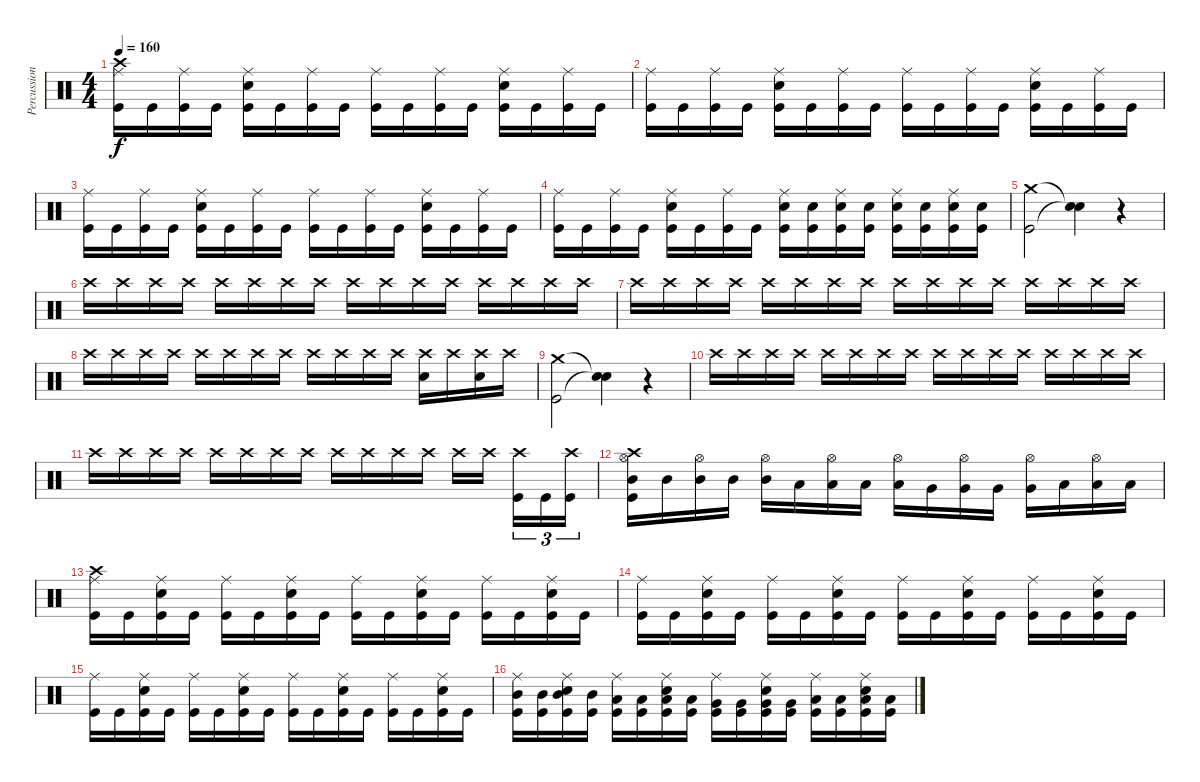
\track ("Percussion" "Percussion") {instrument percussion}
\staff {score}
\articulation defaults
\ts (4 4)
\tempo 160
\clef neutral
\ks c
("Crash high (hit)" "Ride (middle)" "Kick (hit)").16{dy f} "Kick (hit)".16 ("Ride (middle)" "Kick (hit)").16 "Kick (hit)".16 ("Electric Snare (hit)" "Ride (middle)" "Kick (hit)").16 "Kick (hit)".16 ("Ride (middle)" "Kick (hit)").16 "Kick (hit)".16 ("Ride (middle)" "Kick (hit)").16 "Kick (hit)".16 ("Ride (middle)" "Kick (hit)").16 "Kick (hit)".16 ("Electric Snare (hit)" "Ride (middle)" "Kick (hit)").16 "Kick (hit)".16 ("Ride (middle)" "Kick (hit)").16 "Kick (hit)".16 |
("Ride (middle)" "Kick (hit)").16 "Kick (hit)".16 ("Ride (middle)" "Kick (hit)").16 "Kick (hit)".16 ("Electric Snare (hit)" "Ride (middle)" "Kick (hit)").16 "Kick (hit)".16 ("Ride (middle)" "Kick (hit)").16 "Kick (hit)".16 ("Ride (middle)" "Kick (hit)").16 "Kick (hit)".16 ("Ride (middle)" "Kick (hit)").16 "Kick (hit)".16 ("Electric Snare (hit)" "Ride (middle)" "Kick (hit)").16 "Kick (hit)".16 ("Ride (middle)" "Kick (hit)").16 "Kick (hit)".16 |
("Ride (middle)" "Kick (hit)").16 "Kick (hit)".16 ("Ride (middle)" "Kick (hit)").16 "Kick (hit)".16 ("Electric Snare (hit)" "Ride (middle)" "Kick (hit)").16 "Kick (hit)".16 ("Ride (middle)" "Kick (hit)").16 "Kick (hit)".16 ("Ride (middle)" "Kick (hit)").16 "Kick (hit)".16 ("Ride (middle)" "Kick (hit)").16 "Kick (hit)".16 ("Electric Snare (hit)" "Ride (middle)" "Kick (hit)").16 "Kick (hit)".16 ("Ride (middle)" "Kick (hit)").16 "Kick (hit)".16 |
("Ride (middle)" "Kick (hit)").16 "Kick (hit)".16 ("Ride (middle)" "Kick (hit)").16 "Kick (hit)".16 ("Electric Snare (hit)" "Ride (middle)" "Kick (hit)").16 "Kick (hit)".16 ("Ride (middle)" "Kick (hit)").16 "Kick (hit)".16 ("Electric Snare (hit)" "Ride (middle)" "Kick (hit)").16 ("Electric Snare (hit)" "Kick (hit)").16 ("Electric Snare (hit)" "Ride (middle)" "Kick (hit)").16 ("Electric Snare (hit)" "Kick (hit)").16 ("Electric Snare (hit)" "Ride (middle)" "Kick (hit)").16 ("Electric Snare (hit)" "Kick (hit)").16 ("Electric Snare (hit)" "Ride (middle)" "Kick (hit)").16 ("Electric Snare (hit)" "Kick (hit)").16 |
("Crash medium (hit)" "Kick (hit)").2 ("Snare (hit)"{t} "Snare (hit)"{t}).4 r.4{volume 0} |
"Crash high (hit)".16{volume 16} "Crash high (hit)".16 "Crash high (hit)".16 "Crash high (hit)".16 "Crash high (hit)".16 "Crash high (hit)".16 "Crash high (hit)".16 "Crash high (hit)".16 "Crash high (hit)".16 "Crash high (hit)".16 "Crash high (hit)".16 "Crash high (hit)".16 "Crash high (hit)".16 "Crash high (hit)".16 "Crash high (hit)".16 "Crash high (hit)".16 |
"Crash high (hit)".16 "Crash high (hit)".16 "Crash high (hit)".16 "Crash high (hit)".16 "Crash high (hit)".16 "Crash high (hit)".16 "Crash high (hit)".16 "Crash high (hit)".16 "Crash high (hit)".16 "Crash high (hit)".16 "Crash high (hit)".16 "Crash high (hit)".16 "Crash high (hit)".16 "Crash high (hit)".16 "Crash high (hit)".16 "Crash high (hit)".16 |
"Crash high (hit)".16 "Crash high (hit)".16 "Crash high (hit)".16 "Crash high (hit)".16 "Crash high (hit)".16 "Crash high (hit)".16 "Crash high (hit)".16 "Crash high (hit)".16 "Crash high (hit)".16 "Crash high (hit)".16 "Crash high (hit)".16 "Crash high (hit)".16 ("Electric Snare (hit)" "Crash high (hit)").16 "Crash high (hit)".16 ("Electric Snare (hit)" "Crash high (hit)").16 "Crash high (hit)".16 |
("Crash medium (hit)" "Kick (hit)").2 ("Snare (hit)"{t} "Snare (hit)"{t}).4 r.4{volume 0} |
"Crash high (hit)".16{volume 16} "Crash high (hit)".16 "Crash high (hit)".16 "Crash high (hit)".16 "Crash high (hit)".16 "Crash high (hit)".16 "Crash high (hit)".16 "Crash high (hit)".16 "Crash high (hit)".16 "Crash high (hit)".16 "Crash high (hit)".16 "Crash high (hit)".16 "Crash high (hit)".16 "Crash high (hit)".16 "Crash high (hit)".16 "Crash high (hit)".16 |
"Crash high (hit)".16 "Crash high (hit)".16 "Crash high (hit)".16 "Crash high (hit)".16 "Crash high (hit)".16 "Crash high (hit)".16 "Crash high (hit)".16 "Crash high (hit)".16 "Crash high (hit)".16 "Crash high (hit)".16 "Crash high (hit)".16 "Crash high (hit)".16 "Crash high (hit)".16 "Crash high (hit)".16 ("Kick (hit)" "Crash high (hit)").16{tu (3 2)} "Kick (hit)".16{tu (3 2)} ("Kick (hit)" "Crash high (hit)").16{tu (3 2)} |
("Crash high (hit)" "Hi-Hat (open)" "Mid Tom (hit)" "Kick (hit)").16 "Mid Tom (hit)".16 ("Hi-Hat (open)" "Mid Tom (hit)").16 "Mid Tom (hit)".16 ("Hi-Hat (open)" "Mid Tom (hit)").16 "Low Tom (hit)".16 ("Hi-Hat (open)" "Low Tom (hit)").16 "Low Tom (hit)".16 ("Hi-Hat (open)" "Low Tom (hit)").16 "Very Low Tom (hit)".16 ("Hi-Hat (open)" "Very Low Tom (hit)").16 "Very Low Tom (hit)".16 ("Hi-Hat (open)" "Very Low Tom (hit)").16 "Low Floor Tom (hit)".16 ("Hi-Hat (open)" "Low Floor Tom (hit)").16 "Low Floor Tom (hit)".16 |
("Crash high (hit)" "Ride (middle)" "Kick (hit)").16 "Kick (hit)".16 ("Electric Snare (hit)" "Ride (middle)" "Kick (hit)").16 "Kick (hit)".16 ("Ride (middle)" "Kick (hit)").16 "Kick (hit)".16 ("Electric Snare (hit)" "Ride (middle)" "Kick (hit)").16 "Kick (hit)".16 ("Ride (middle)" "Kick (hit)").16 "Kick (hit)".16 ("Electric Snare (hit)" "Ride (middle)" "Kick (hit)").16 "Kick (hit)".16 ("Ride (middle)" "Kick (hit)").16 "Kick (hit)".16 ("Electric Snare (hit)" "Ride (middle)" "Kick (hit)").16 "Kick (hit)".16 |
("Ride (middle)" "Kick (hit)").16 "Kick (hit)".16 ("Electric Snare (hit)" "Ride (middle)" "Kick (hit)").16 "Kick (hit)".16 ("Ride (middle)" "Kick (hit)").16 "Kick (hit)".16 ("Electric Snare (hit)" "Ride (middle)" "Kick (hit)").16 "Kick (hit)".16 ("Ride (middle)" "Kick (hit)").16 "Kick (hit)".16 ("Electric Snare (hit)" "Ride (middle)" "Kick (hit)").16 "Kick (hit)".16 ("Ride (middle)" "Kick (hit)").16 "Kick (hit)".16 ("Electric Snare (hit)" "Ride (middle)" "Kick (hit)").16 "Kick (hit)".16 |
("Ride (middle)" "Kick (hit)").16 "Kick (hit)".16 ("Electric Snare (hit)" "Ride (middle)" "Kick (hit)").16 "Kick (hit)".16 ("Ride (middle)" "Kick (hit)").16 "Kick (hit)".16 ("Electric Snare (hit)" "Ride (middle)" "Kick (hit)").16 "Kick (hit)".16 ("Ride (middle)" "Kick (hit)").16 "Kick (hit)".16 ("Electric Snare (hit)" "Ride (middle)" "Kick (hit)").16 "Kick (hit)".16 ("Ride (middle)" "Kick (hit)").16 "Kick (hit)".16 ("Electric Snare (hit)" "Ride (middle)" "Kick (hit)").16 "Kick (hit)".16 |
("Ride (middle)" "Mid Tom (hit)" "Kick (hit)").16 ("Mid Tom (hit)" "Kick (hit)").16 ("Electric Snare (hit)" "Ride (middle)" "Mid Tom (hit)" "Kick (hit)").16 ("Mid Tom (hit)" "Kick (hit)").16 ("Ride (middle)" "Low Tom (hit)" "Kick (hit)").16 ("Low Tom (hit)" "Kick (hit)").16 ("Electric Snare (hit)" "Ride (middle)" "Low Tom (hit)" "Kick (hit)").16 ("Low Tom (hit)" "Kick (hit)").16 ("Ride (middle)" "Very Low Tom (hit)" "Kick (hit)").16 ("Very Low Tom (hit)" "Kick (hit)").16 ("Electric Snare (hit)" "Ride (middle)" "Very Low Tom (hit)" "Kick (hit)").16 ("Very Low Tom (hit)" "Kick (hit)").16 ("Ride (middle)" "Low Floor Tom (hit)" "Kick (hit)").16 ("Low Floor Tom (hit)" "Kick (hit)").16 ("Electric Snare (hit)" "Ride (middle)" "Low Floor Tom (hit)" "Kick (hit)").16 ("Low Floor Tom (hit)" "Kick (hit)").16
